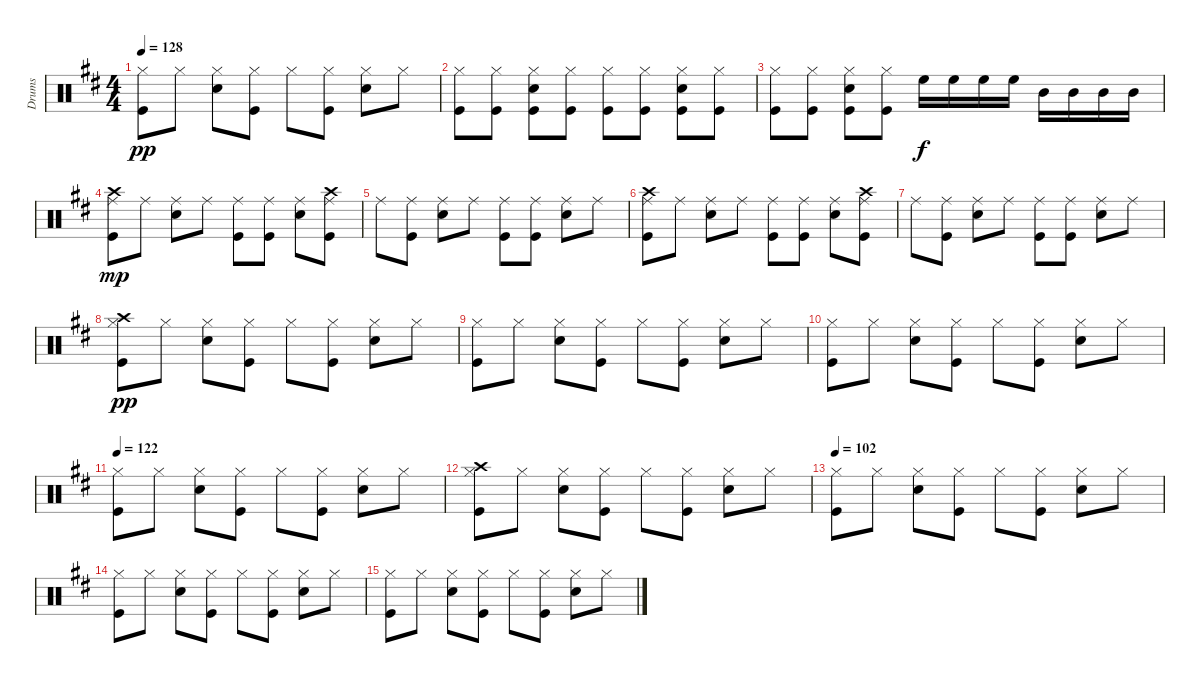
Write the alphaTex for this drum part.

\track ("Drums" "Drums") {instrument percussion}
\staff {score}
\articulation defaults
\ts (4 4)
\tempo 128
\clef neutral
\ks d
("Hi-Hat (closed)" "Kick (hit)").8{dy pp} "Hi-Hat (closed)".8 ("Hi-Hat (closed)" "Electric Snare (hit)").8 ("Hi-Hat (closed)" "Kick (hit)").8 "Hi-Hat (closed)".8 ("Hi-Hat (closed)" "Kick (hit)").8 ("Hi-Hat (closed)" "Electric Snare (hit)").8 "Hi-Hat (closed)".8 |
("Hi-Hat (closed)" "Kick (hit)").8 ("Hi-Hat (closed)" "Kick (hit)").8 ("Hi-Hat (closed)" "Electric Snare (hit)" "Kick (hit)").8 ("Hi-Hat (closed)" "Kick (hit)").8 ("Hi-Hat (closed)" "Kick (hit)").8 ("Hi-Hat (closed)" "Kick (hit)").8 ("Hi-Hat (closed)" "Electric Snare (hit)" "Kick (hit)").8 ("Hi-Hat (closed)" "Kick (hit)").8 |
("Hi-Hat (closed)" "Kick (hit)").8 ("Hi-Hat (closed)" "Kick (hit)").8 ("Hi-Hat (closed)" "Electric Snare (hit)" "Kick (hit)").8 ("Hi-Hat (closed)" "Kick (hit)").8 "High Floor Tom (hit)".16{dy f} "High Floor Tom (hit)".16 "High Floor Tom (hit)".16 "High Floor Tom (hit)".16 "Mid Tom (hit)".16 "Mid Tom (hit)".16 "Mid Tom (hit)".16 "Mid Tom (hit)".16 |
("Crash high (hit)" "Ride (middle)" "Kick (hit)").8{dy mp} "Ride (middle)".8 ("Ride (middle)" "Electric Snare (hit)").8 "Ride (middle)".8 ("Ride (middle)" "Kick (hit)").8 ("Ride (middle)" "Kick (hit)").8 ("Ride (middle)" "Electric Snare (hit)").8 ("Crash high (hit)" "Ride (middle)" "Kick (hit)").8 |
"Ride (middle)".8 ("Ride (middle)" "Kick (hit)").8 ("Ride (middle)" "Electric Snare (hit)").8 "Ride (middle)".8 ("Ride (middle)" "Kick (hit)").8 ("Ride (middle)" "Kick (hit)").8 ("Ride (middle)" "Electric Snare (hit)").8 "Ride (middle)".8 |
("Crash high (hit)" "Ride (middle)" "Kick (hit)").8 "Ride (middle)".8 ("Ride (middle)" "Electric Snare (hit)").8 "Ride (middle)".8 ("Ride (middle)" "Kick (hit)").8 ("Ride (middle)" "Kick (hit)").8 ("Ride (middle)" "Electric Snare (hit)").8 ("Crash high (hit)" "Ride (middle)" "Kick (hit)").8 |
"Ride (middle)".8 ("Ride (middle)" "Kick (hit)").8 ("Ride (middle)" "Electric Snare (hit)").8 "Ride (middle)".8 ("Ride (middle)" "Kick (hit)").8 ("Ride (middle)" "Kick (hit)").8 ("Ride (middle)" "Electric Snare (hit)").8 "Ride (middle)".8 |
("Crash high (hit)" "Hi-Hat (closed)" "Kick (hit)").8{dy pp} "Hi-Hat (closed)".8 ("Hi-Hat (closed)" "Electric Snare (hit)").8 ("Hi-Hat (closed)" "Kick (hit)").8 "Hi-Hat (closed)".8 ("Hi-Hat (closed)" "Kick (hit)").8 ("Hi-Hat (closed)" "Electric Snare (hit)").8 "Hi-Hat (closed)".8 |
("Hi-Hat (closed)" "Kick (hit)").8 "Hi-Hat (closed)".8 ("Hi-Hat (closed)" "Electric Snare (hit)").8 ("Hi-Hat (closed)" "Kick (hit)").8 "Hi-Hat (closed)".8 ("Hi-Hat (closed)" "Kick (hit)").8 ("Hi-Hat (closed)" "Electric Snare (hit)").8 "Hi-Hat (closed)".8 |
("Hi-Hat (closed)" "Kick (hit)").8 "Hi-Hat (closed)".8 ("Hi-Hat (closed)" "Electric Snare (hit)").8 ("Hi-Hat (closed)" "Kick (hit)").8 "Hi-Hat (closed)".8 ("Hi-Hat (closed)" "Kick (hit)").8 ("Hi-Hat (closed)" "Electric Snare (hit)").8 "Hi-Hat (closed)".8 |
\tempo 122
("Hi-Hat (closed)" "Kick (hit)").8 "Hi-Hat (closed)".8 ("Hi-Hat (closed)" "Electric Snare (hit)").8 ("Hi-Hat (closed)" "Kick (hit)").8 "Hi-Hat (closed)".8 ("Hi-Hat (closed)" "Kick (hit)").8 ("Hi-Hat (closed)" "Electric Snare (hit)").8 "Hi-Hat (closed)".8 |
("Crash high (hit)" "Hi-Hat (closed)" "Kick (hit)").8 "Hi-Hat (closed)".8 ("Hi-Hat (closed)" "Electric Snare (hit)").8 ("Hi-Hat (closed)" "Kick (hit)").8 "Hi-Hat (closed)".8 ("Hi-Hat (closed)" "Kick (hit)").8 ("Hi-Hat (closed)" "Electric Snare (hit)").8 "Hi-Hat (closed)".8 |
\tempo 102
("Hi-Hat (closed)" "Kick (hit)").8 "Hi-Hat (closed)".8 ("Hi-Hat (closed)" "Electric Snare (hit)").8 ("Hi-Hat (closed)" "Kick (hit)").8 "Hi-Hat (closed)".8 ("Hi-Hat (closed)" "Kick (hit)").8 ("Hi-Hat (closed)" "Electric Snare (hit)").8 "Hi-Hat (closed)".8 |
("Hi-Hat (closed)" "Kick (hit)").8 "Hi-Hat (closed)".8 ("Hi-Hat (closed)" "Electric Snare (hit)").8 ("Hi-Hat (closed)" "Kick (hit)").8 "Hi-Hat (closed)".8 ("Hi-Hat (closed)" "Kick (hit)").8 ("Hi-Hat (closed)" "Electric Snare (hit)").8 "Hi-Hat (closed)".8 |
("Hi-Hat (closed)" "Kick (hit)").8 "Hi-Hat (closed)".8 ("Hi-Hat (closed)" "Electric Snare (hit)").8 ("Hi-Hat (closed)" "Kick (hit)").8 "Hi-Hat (closed)".8 ("Hi-Hat (closed)" "Kick (hit)").8 ("Hi-Hat (closed)" "Electric Snare (hit)").8 "Hi-Hat (closed)".8
